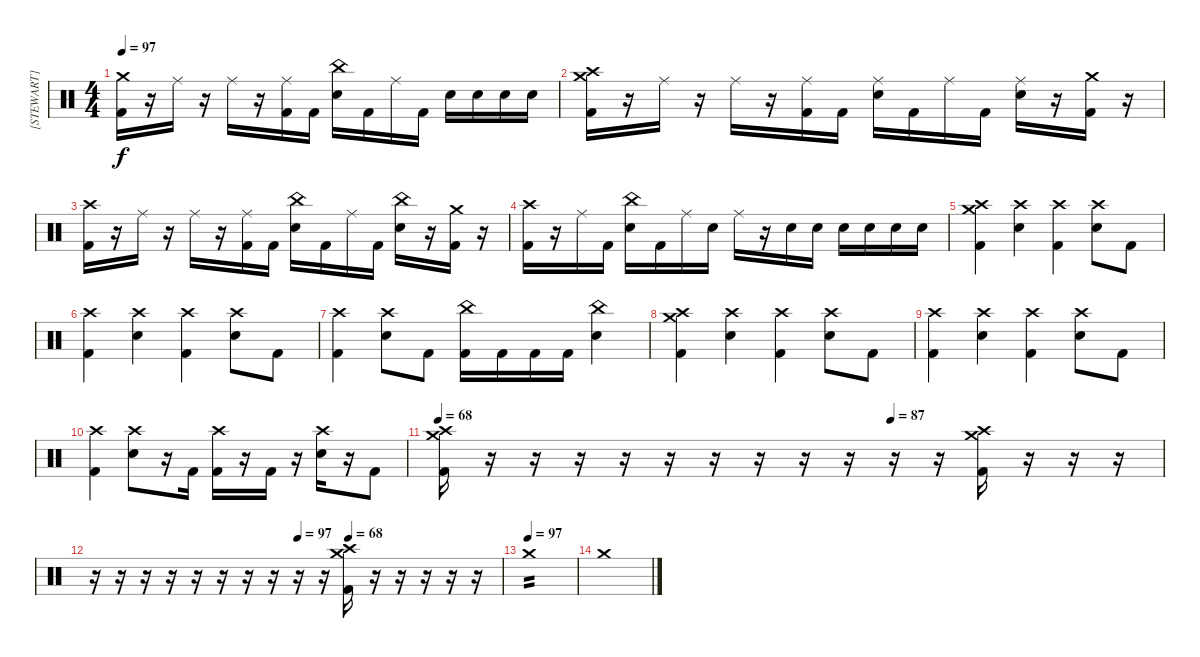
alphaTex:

\track ("[STEWART]" "[STEWART]") {instrument percussion}
\staff {score}
\articulation defaults
\ts (4 4)
\tempo 97
\clef neutral
\ks c
("Crash medium (hit)" "Kick (hit) 2").16{dy f} r.16 "Ride (middle)".16 r.16 "Ride (middle)".16 r.16 ("Ride (middle)" "Kick (hit) 2").16 "Kick (hit) 2".16 ("China (hit)" "Electric Snare (hit)").16 "Kick (hit) 2".16 "Ride (middle)".16 "Kick (hit) 2".16 "Electric Snare (hit)".16 "Electric Snare (hit)".16 "Electric Snare (hit)".16 "Electric Snare (hit)".16 |
("Crash high (hit)" "Crash medium (hit)" "Kick (hit) 2").16 r.16 "Ride (middle)".16 r.16 "Ride (middle)".16 r.16 ("Ride (middle)" "Kick (hit) 2").16 "Kick (hit) 2".16 ("Ride (middle)" "Electric Snare (hit)").16 "Kick (hit) 2".16 "Ride (middle)".16 "Kick (hit) 2".16 ("Ride (middle)" "Electric Snare (hit)").16 r.16 ("Crash medium (hit)" "Kick (hit) 2").16 r.16 |
("Crash high (hit)" "Kick (hit) 2").16 r.16 "Ride (middle)".16 r.16 "Ride (middle)".16 r.16 ("Ride (middle)" "Kick (hit) 2").16 "Kick (hit) 2".16 ("China (hit)" "Electric Snare (hit)").16 "Kick (hit) 2".16 "Ride (middle)".16 "Kick (hit) 2".16 ("China (hit)" "Electric Snare (hit)").16 r.16 ("Crash medium (hit)" "Kick (hit) 2").16 r.16 |
("Crash high (hit)" "Kick (hit) 2").16 r.16 "Ride (middle)".16 "Kick (hit) 2".16 ("China (hit)" "Electric Snare (hit)").16 "Kick (hit) 2".16 "Ride (middle)".16 "Electric Snare (hit)".16 "Ride (middle)".16 r.16 "Electric Snare (hit)".16 "Electric Snare (hit)".16 "Electric Snare (hit)".16 "Electric Snare (hit)".16 "Electric Snare (hit)".16 "Electric Snare (hit)".16 |
("Crash high (hit)" "Crash medium (hit)" "Kick (hit) 2").4 ("Crash high (hit)" "Electric Snare (hit)").4 ("Crash high (hit)" "Kick (hit) 2").4 ("Crash high (hit)" "Electric Snare (hit)").8 "Kick (hit) 2".8 |
("Crash high (hit)" "Kick (hit) 2").4 ("Crash high (hit)" "Electric Snare (hit)").4 ("Crash high (hit)" "Kick (hit) 2").4 ("Crash high (hit)" "Electric Snare (hit)").8 "Kick (hit) 2".8 |
("Crash high (hit)" "Kick (hit) 2").4 ("Crash high (hit)" "Electric Snare (hit)").8 "Kick (hit) 2".8 ("China (hit)" "Kick (hit) 2").16 "Kick (hit) 2".16 "Kick (hit) 2".16 "Kick (hit) 2".16 ("China (hit)" "Electric Snare (hit)").4 |
("Crash high (hit)" "Crash medium (hit)" "Kick (hit) 2").4 ("Crash high (hit)" "Electric Snare (hit)").4 ("Crash high (hit)" "Kick (hit) 2").4 ("Crash high (hit)" "Electric Snare (hit)").8 "Kick (hit) 2".8 |
("Crash high (hit)" "Kick (hit) 2").4 ("Crash high (hit)" "Electric Snare (hit)").4 ("Crash high (hit)" "Kick (hit) 2").4 ("Crash high (hit)" "Electric Snare (hit)").8 "Kick (hit) 2".8 |
("Crash high (hit)" "Kick (hit) 2").4 ("Crash high (hit)" "Electric Snare (hit)").8 r.16 "Kick (hit) 2".16 ("Crash high (hit)" "Kick (hit) 2").16 r.16 "Kick (hit) 2".16 r.16 ("Crash high (hit)" "Electric Snare (hit)").16 r.16 "Kick (hit) 2".8 |
\tempo 68
\tempo (87 0.625)
("Crash high (hit)" "Crash medium (hit)" "Kick (hit) 2").16 r.16 r.16 r.16 r.16 r.16 r.16 r.16 r.16 r.16 r.16 r.16 ("Crash high (hit)" "Crash medium (hit)" "Kick (hit) 2").16 r.16 r.16 r.16 |
\tempo (97 0.5)
\tempo (68 0.625)
r.16 r.16 r.16 r.16 r.16 r.16 r.16 r.16 r.16 r.16 ("Crash high (hit)" "Crash medium (hit)" "Kick (hit) 2").16 r.16 r.16 r.16 r.16 r.16 |
\tempo (97)
"Crash medium (hit)".1{tp 2 volume 7} |
"Crash medium (hit)".1{volume 3}
